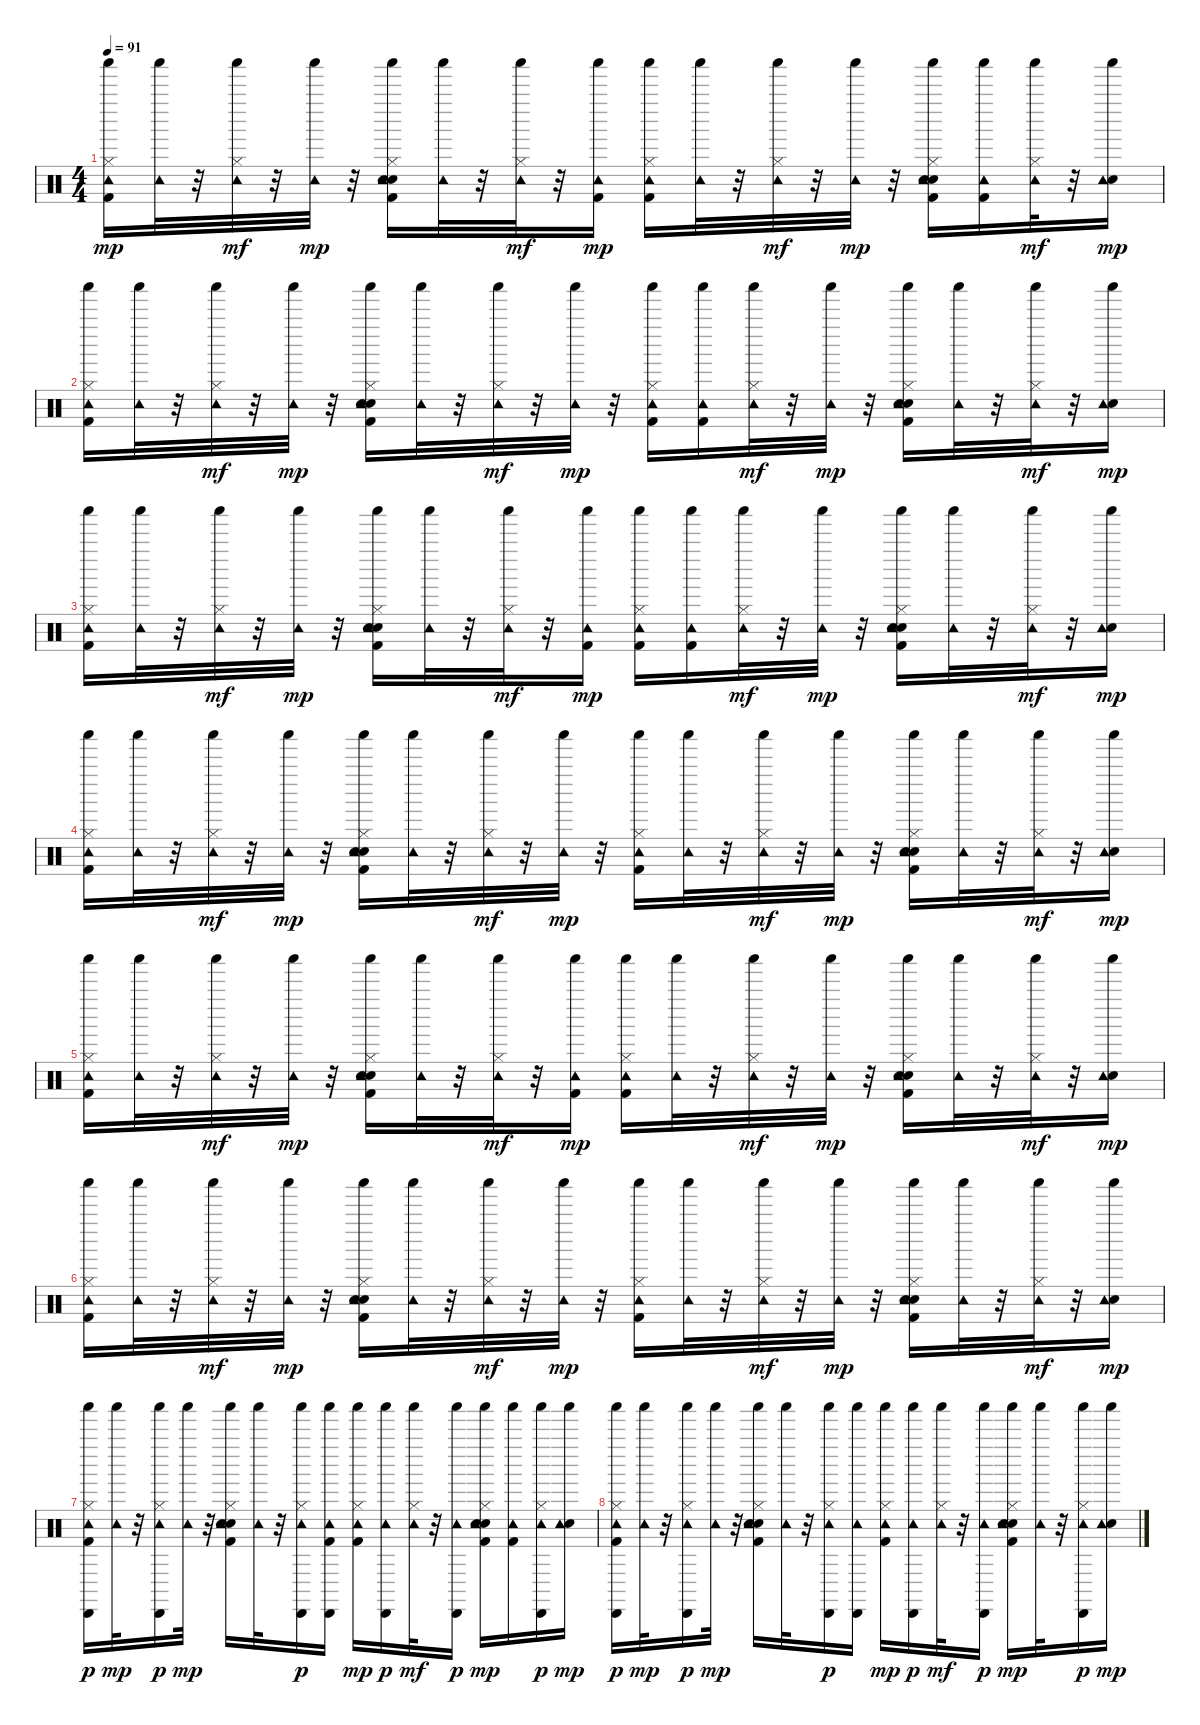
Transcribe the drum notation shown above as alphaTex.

\track "" {instrument percussion}
\staff {score}
\articulation defaults
\ts (4 4)
\tempo 91
\clef neutral
\ks c
("Kick (hit) 2" "Hi-Hat (closed)" "Tambourine (hit)" "Shaker (hit)").16{dy mp} ("Tambourine (hit)" "Shaker (hit)").32 r.32 ("Hi-Hat (closed)" "Tambourine (hit)" "Shaker (hit)").32{dy mf} r.32 ("Tambourine (hit)" "Shaker (hit)").32{dy mp} r.32 ("Kick (hit) 2" "Electric Snare (hit)" "Hi-Hat (closed)" "Hand Clap (hit)" "Tambourine (hit)" "Shaker (hit)").16 ("Tambourine (hit)" "Shaker (hit)").32 r.32 ("Hi-Hat (closed)" "Tambourine (hit)" "Shaker (hit)").32{dy mf} r.32 ("Kick (hit) 2" "Tambourine (hit)" "Shaker (hit)").16{dy mp} ("Kick (hit) 2" "Hi-Hat (closed)" "Tambourine (hit)" "Shaker (hit)").16 ("Tambourine (hit)" "Shaker (hit)").32 r.32 ("Hi-Hat (closed)" "Tambourine (hit)" "Shaker (hit)").32{dy mf} r.32 ("Tambourine (hit)" "Shaker (hit)").32{dy mp} r.32 ("Kick (hit) 2" "Electric Snare (hit)" "Hi-Hat (closed)" "Hand Clap (hit)" "Tambourine (hit)" "Shaker (hit)").16 ("Kick (hit) 2" "Tambourine (hit)" "Shaker (hit)").16 ("Hi-Hat (closed)" "Tambourine (hit)" "Shaker (hit)").32{dy mf} r.32 ("Electric Snare (hit)" "Tambourine (hit)" "Shaker (hit)").16{dy mp} |
("Kick (hit) 2" "Hi-Hat (closed)" "Tambourine (hit)" "Shaker (hit)").16 ("Tambourine (hit)" "Shaker (hit)").32 r.32 ("Hi-Hat (closed)" "Tambourine (hit)" "Shaker (hit)").32{dy mf} r.32 ("Tambourine (hit)" "Shaker (hit)").32{dy mp} r.32 ("Kick (hit) 2" "Electric Snare (hit)" "Hi-Hat (closed)" "Hand Clap (hit)" "Tambourine (hit)" "Shaker (hit)").16 ("Tambourine (hit)" "Shaker (hit)").32 r.32 ("Hi-Hat (closed)" "Tambourine (hit)" "Shaker (hit)").32{dy mf} r.32 ("Tambourine (hit)" "Shaker (hit)").32{dy mp} r.32 ("Kick (hit) 2" "Hi-Hat (closed)" "Tambourine (hit)" "Shaker (hit)").16 ("Kick (hit) 2" "Tambourine (hit)" "Shaker (hit)").16 ("Hi-Hat (closed)" "Tambourine (hit)" "Shaker (hit)").32{dy mf} r.32 ("Tambourine (hit)" "Shaker (hit)").32{dy mp} r.32 ("Kick (hit) 2" "Electric Snare (hit)" "Hi-Hat (closed)" "Hand Clap (hit)" "Tambourine (hit)" "Shaker (hit)").16 ("Tambourine (hit)" "Shaker (hit)").32 r.32 ("Hi-Hat (closed)" "Tambourine (hit)" "Shaker (hit)").32{dy mf} r.32 ("Electric Snare (hit)" "Tambourine (hit)" "Shaker (hit)").16{dy mp} |
("Kick (hit) 2" "Hi-Hat (closed)" "Tambourine (hit)" "Shaker (hit)").16 ("Tambourine (hit)" "Shaker (hit)").32 r.32 ("Hi-Hat (closed)" "Tambourine (hit)" "Shaker (hit)").32{dy mf} r.32 ("Tambourine (hit)" "Shaker (hit)").32{dy mp} r.32 ("Kick (hit) 2" "Electric Snare (hit)" "Hi-Hat (closed)" "Hand Clap (hit)" "Tambourine (hit)" "Shaker (hit)").16 ("Tambourine (hit)" "Shaker (hit)").32 r.32 ("Hi-Hat (closed)" "Tambourine (hit)" "Shaker (hit)").32{dy mf} r.32 ("Kick (hit) 2" "Tambourine (hit)" "Shaker (hit)").16{dy mp} ("Kick (hit) 2" "Hi-Hat (closed)" "Tambourine (hit)" "Shaker (hit)").16 ("Kick (hit) 2" "Tambourine (hit)" "Shaker (hit)").16 ("Hi-Hat (closed)" "Tambourine (hit)" "Shaker (hit)").32{dy mf} r.32 ("Tambourine (hit)" "Shaker (hit)").32{dy mp} r.32 ("Kick (hit) 2" "Electric Snare (hit)" "Hi-Hat (closed)" "Hand Clap (hit)" "Tambourine (hit)" "Shaker (hit)").16 ("Tambourine (hit)" "Shaker (hit)").32 r.32 ("Hi-Hat (closed)" "Tambourine (hit)" "Shaker (hit)").32{dy mf} r.32 ("Electric Snare (hit)" "Tambourine (hit)" "Shaker (hit)").16{dy mp} |
("Kick (hit) 2" "Hi-Hat (closed)" "Tambourine (hit)" "Shaker (hit)").16 ("Tambourine (hit)" "Shaker (hit)").32 r.32 ("Hi-Hat (closed)" "Tambourine (hit)" "Shaker (hit)").32{dy mf} r.32 ("Tambourine (hit)" "Shaker (hit)").32{dy mp} r.32 ("Kick (hit) 2" "Electric Snare (hit)" "Hi-Hat (closed)" "Hand Clap (hit)" "Tambourine (hit)" "Shaker (hit)").16 ("Tambourine (hit)" "Shaker (hit)").32 r.32 ("Hi-Hat (closed)" "Tambourine (hit)" "Shaker (hit)").32{dy mf} r.32 ("Tambourine (hit)" "Shaker (hit)").32{dy mp} r.32 ("Kick (hit) 2" "Hi-Hat (closed)" "Tambourine (hit)" "Shaker (hit)").16 ("Tambourine (hit)" "Shaker (hit)").32 r.32 ("Hi-Hat (closed)" "Tambourine (hit)" "Shaker (hit)").32{dy mf} r.32 ("Tambourine (hit)" "Shaker (hit)").32{dy mp} r.32 ("Kick (hit) 2" "Electric Snare (hit)" "Hi-Hat (closed)" "Hand Clap (hit)" "Tambourine (hit)" "Shaker (hit)").16 ("Tambourine (hit)" "Shaker (hit)").32 r.32 ("Hi-Hat (closed)" "Tambourine (hit)" "Shaker (hit)").32{dy mf} r.32 ("Electric Snare (hit)" "Tambourine (hit)" "Shaker (hit)").16{dy mp} |
("Kick (hit) 2" "Hi-Hat (closed)" "Tambourine (hit)" "Shaker (hit)").16 ("Tambourine (hit)" "Shaker (hit)").32 r.32 ("Hi-Hat (closed)" "Tambourine (hit)" "Shaker (hit)").32{dy mf} r.32 ("Tambourine (hit)" "Shaker (hit)").32{dy mp} r.32 ("Kick (hit) 2" "Electric Snare (hit)" "Hi-Hat (closed)" "Hand Clap (hit)" "Tambourine (hit)" "Shaker (hit)").16 ("Tambourine (hit)" "Shaker (hit)").32 r.32 ("Hi-Hat (closed)" "Tambourine (hit)" "Shaker (hit)").32{dy mf} r.32 ("Kick (hit) 2" "Tambourine (hit)" "Shaker (hit)").16{dy mp} ("Kick (hit) 2" "Hi-Hat (closed)" "Tambourine (hit)" "Shaker (hit)").16 ("Tambourine (hit)" "Shaker (hit)").32 r.32 ("Hi-Hat (closed)" "Tambourine (hit)" "Shaker (hit)").32{dy mf} r.32 ("Tambourine (hit)" "Shaker (hit)").32{dy mp} r.32 ("Kick (hit) 2" "Electric Snare (hit)" "Hi-Hat (closed)" "Hand Clap (hit)" "Tambourine (hit)" "Shaker (hit)").16 ("Tambourine (hit)" "Shaker (hit)").32 r.32 ("Hi-Hat (closed)" "Tambourine (hit)" "Shaker (hit)").32{dy mf} r.32 ("Electric Snare (hit)" "Tambourine (hit)" "Shaker (hit)").16{dy mp} |
("Kick (hit) 2" "Hi-Hat (closed)" "Tambourine (hit)" "Shaker (hit)").16 ("Tambourine (hit)" "Shaker (hit)").32 r.32 ("Hi-Hat (closed)" "Tambourine (hit)" "Shaker (hit)").32{dy mf} r.32 ("Tambourine (hit)" "Shaker (hit)").32{dy mp} r.32 ("Kick (hit) 2" "Electric Snare (hit)" "Hi-Hat (closed)" "Hand Clap (hit)" "Tambourine (hit)" "Shaker (hit)").16 ("Tambourine (hit)" "Shaker (hit)").32 r.32 ("Hi-Hat (closed)" "Tambourine (hit)" "Shaker (hit)").32{dy mf} r.32 ("Tambourine (hit)" "Shaker (hit)").32{dy mp} r.32 ("Kick (hit) 2" "Hi-Hat (closed)" "Tambourine (hit)" "Shaker (hit)").16 ("Tambourine (hit)" "Shaker (hit)").32 r.32 ("Hi-Hat (closed)" "Tambourine (hit)" "Shaker (hit)").32{dy mf} r.32 ("Tambourine (hit)" "Shaker (hit)").32{dy mp} r.32 ("Kick (hit) 2" "Electric Snare (hit)" "Hi-Hat (closed)" "Hand Clap (hit)" "Tambourine (hit)" "Shaker (hit)").16 ("Tambourine (hit)" "Shaker (hit)").32 r.32 ("Hi-Hat (closed)" "Tambourine (hit)" "Shaker (hit)").32{dy mf} r.32 ("Electric Snare (hit)" "Tambourine (hit)" "Shaker (hit)").16{dy mp} |
("Kick (hit) 2" "Hi-Hat (closed)" "Tambourine (hit)" "Shaker (hit)" "Cabasa (hit)").16{dy p} ("Tambourine (hit)" "Shaker (hit)").32{dy mp} r.32 ("Hi-Hat (closed)" "Tambourine (hit)" "Shaker (hit)" "Cabasa (hit)").16{dy p} ("Tambourine (hit)" "Shaker (hit)").32{dy mp} r.32 ("Kick (hit) 2" "Electric Snare (hit)" "Hi-Hat (closed)" "Hand Clap (hit)" "Tambourine (hit)" "Shaker (hit)").16 ("Tambourine (hit)" "Shaker (hit)").32 r.32 ("Hi-Hat (closed)" "Tambourine (hit)" "Shaker (hit)" "Cabasa (hit)").16{dy p} ("Kick (hit) 2" "Tambourine (hit)" "Shaker (hit)" "Cabasa (hit)").16 ("Kick (hit) 2" "Hi-Hat (closed)" "Tambourine (hit)" "Shaker (hit)").16{dy mp} ("Tambourine (hit)" "Shaker (hit)" "Cabasa (hit)").16{dy p} ("Hi-Hat (closed)" "Tambourine (hit)" "Shaker (hit)").32{dy mf} r.32 ("Tambourine (hit)" "Shaker (hit)" "Cabasa (hit)").16{dy p} ("Kick (hit) 2" "Electric Snare (hit)" "Hi-Hat (closed)" "Hand Clap (hit)" "Tambourine (hit)" "Shaker (hit)").16{dy mp} ("Kick (hit) 2" "Tambourine (hit)" "Shaker (hit)").16 ("Hi-Hat (closed)" "Tambourine (hit)" "Shaker (hit)" "Cabasa (hit)").16{dy p} ("Electric Snare (hit)" "Tambourine (hit)" "Shaker (hit)").16{dy mp} |
("Kick (hit) 2" "Hi-Hat (closed)" "Tambourine (hit)" "Shaker (hit)" "Cabasa (hit)").16{dy p} ("Tambourine (hit)" "Shaker (hit)").32{dy mp} r.32 ("Hi-Hat (closed)" "Tambourine (hit)" "Shaker (hit)" "Cabasa (hit)").16{dy p} ("Tambourine (hit)" "Shaker (hit)").32{dy mp} r.32 ("Kick (hit) 2" "Electric Snare (hit)" "Hi-Hat (closed)" "Hand Clap (hit)" "Tambourine (hit)" "Shaker (hit)").16 ("Tambourine (hit)" "Shaker (hit)").32 r.32 ("Hi-Hat (closed)" "Tambourine (hit)" "Shaker (hit)" "Cabasa (hit)").16{dy p} ("Tambourine (hit)" "Shaker (hit)" "Cabasa (hit)").16 ("Kick (hit) 2" "Hi-Hat (closed)" "Tambourine (hit)" "Shaker (hit)").16{dy mp} ("Tambourine (hit)" "Shaker (hit)" "Cabasa (hit)").16{dy p} ("Hi-Hat (closed)" "Tambourine (hit)" "Shaker (hit)").32{dy mf} r.32 ("Tambourine (hit)" "Shaker (hit)" "Cabasa (hit)").16{dy p} ("Kick (hit) 2" "Electric Snare (hit)" "Hi-Hat (closed)" "Hand Clap (hit)" "Tambourine (hit)" "Shaker (hit)").16{dy mp} ("Tambourine (hit)" "Shaker (hit)").32 r.32 ("Hi-Hat (closed)" "Tambourine (hit)" "Shaker (hit)" "Cabasa (hit)").16{dy p} ("Electric Snare (hit)" "Tambourine (hit)" "Shaker (hit)").16{dy mp}
